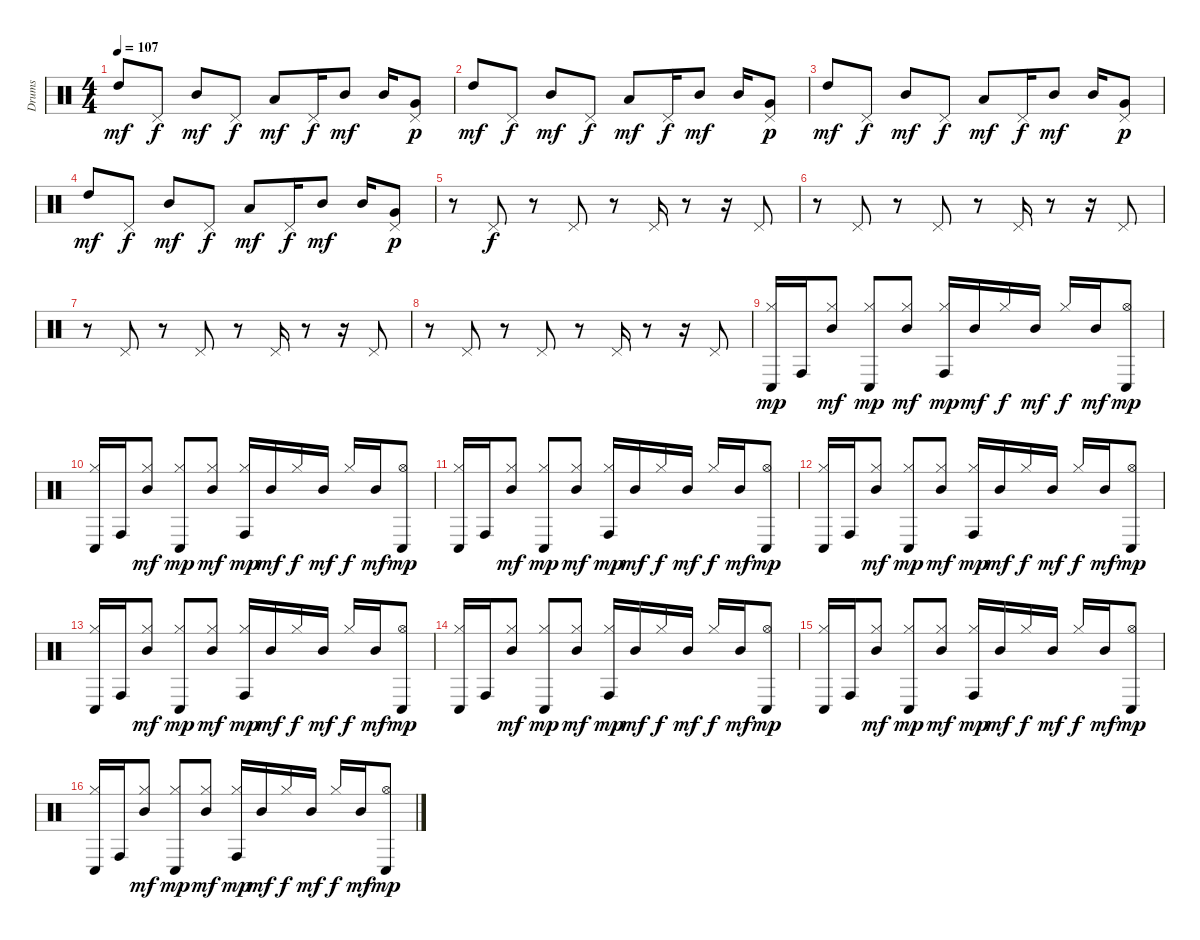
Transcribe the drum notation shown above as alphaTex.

\track ("Drums" "Drums") {instrument percussion}
\staff {score}
\articulation defaults
\ts (4 4)
\tempo 107
\clef neutral
\ks c "High Tom (hit)".8{dy mf} "Pedal Hi-Hat (hit)".8{dy f} "Mid Tom (hit)".8{dy mf} "Pedal Hi-Hat (hit)".8{dy f} "Low Tom (hit)".8{dy mf} "Pedal Hi-Hat (hit)".16{dy f} "Mid Tom (hit)".8{dy mf} "Mid Tom (hit)".16
("Pedal Hi-Hat (hit)" "Very Low Tom (hit)").8{dy p} |
"High Tom (hit)".8{dy mf} "Pedal Hi-Hat (hit)".8{dy f} "Mid Tom (hit)".8{dy mf} "Pedal Hi-Hat (hit)".8{dy f} "Low Tom (hit)".8{dy mf} "Pedal Hi-Hat (hit)".16{dy f} "Mid Tom (hit)".8{dy mf} "Mid Tom (hit)".16 ("Pedal Hi-Hat (hit)" "Very Low Tom (hit)").8{dy p} |
"High Tom (hit)".8{dy mf} "Pedal Hi-Hat (hit)".8{dy f} "Mid Tom (hit)".8{dy mf} "Pedal Hi-Hat (hit)".8{dy f} "Low Tom (hit)".8{dy mf} "Pedal Hi-Hat (hit)".16{dy f} "Mid Tom (hit)".8{dy mf} "Mid Tom (hit)".16 ("Pedal Hi-Hat (hit)" "Very Low Tom (hit)").8{dy p} |
"High Tom (hit)".8{dy mf} "Pedal Hi-Hat (hit)".8{dy f} "Mid Tom (hit)".8{dy mf} "Pedal Hi-Hat (hit)".8{dy f} "Low Tom (hit)".8{dy mf} "Pedal Hi-Hat (hit)".16{dy f} "Mid Tom (hit)".8{dy mf} "Mid Tom (hit)".16 ("Pedal Hi-Hat (hit)" "Very Low Tom (hit)").8{dy p} |
r.8 "Pedal Hi-Hat (hit)".8{dy f} r.8 "Pedal Hi-Hat (hit)".8 r.8 "Pedal Hi-Hat (hit)".16 r.8 r.16 "Pedal Hi-Hat (hit)".8 |
r.8 "Pedal Hi-Hat (hit)".8 r.8 "Pedal Hi-Hat (hit)".8 r.8 "Pedal Hi-Hat (hit)".16 r.8 r.16 "Pedal Hi-Hat (hit)".8 |
r.8 "Pedal Hi-Hat (hit)".8 r.8 "Pedal Hi-Hat (hit)".8 r.8 "Pedal Hi-Hat (hit)".16 r.8 r.16 "Pedal Hi-Hat (hit)".8 |
r.8 "Pedal Hi-Hat (hit)".8 r.8 "Pedal Hi-Hat (hit)".8 r.8 "Pedal Hi-Hat (hit)".16 r.8 r.16 "Pedal Hi-Hat (hit)".8 |
("Hi-Hat (closed)" "Conga low (hit)").16{dy mp} "Conga high (hit)".16 ("Hi-Hat (closed)" "Mid Tom (hit)").8{dy mf} ("Hi-Hat (closed)" "Conga low (hit)").8{dy mp} ("Hi-Hat (closed)" "Mid Tom (hit)").8{dy mf} ("Hi-Hat (closed)" "Conga high (hit)").16{dy mp} "Mid Tom (hit)".16{dy mf} "Hi-Hat (closed)".16{dy f} "Mid Tom (hit)".16{dy mf} "Hi-Hat (closed)".16{dy f} "Mid Tom (hit)".16{dy mf} ("Hi-Hat (open)" "Conga low (hit)").8{dy mp} |
("Hi-Hat (closed)" "Conga low (hit)").16 "Conga high (hit)".16 ("Hi-Hat (closed)" "Mid Tom (hit)").8{dy mf} ("Hi-Hat (closed)" "Conga low (hit)").8{dy mp} ("Hi-Hat (closed)" "Mid Tom (hit)").8{dy mf} ("Hi-Hat (closed)" "Conga high (hit)").16{dy mp} "Mid Tom (hit)".16{dy mf} "Hi-Hat (closed)".16{dy f} "Mid Tom (hit)".16{dy mf} "Hi-Hat (closed)".16{dy f} "Mid Tom (hit)".16{dy mf} ("Hi-Hat (open)" "Conga low (hit)").8{dy mp} |
("Hi-Hat (closed)" "Conga low (hit)").16 "Conga high (hit)".16 ("Hi-Hat (closed)" "Mid Tom (hit)").8{dy mf} ("Hi-Hat (closed)" "Conga low (hit)").8{dy mp} ("Hi-Hat (closed)" "Mid Tom (hit)").8{dy mf} ("Hi-Hat (closed)" "Conga high (hit)").16{dy mp} "Mid Tom (hit)".16{dy mf} "Hi-Hat (closed)".16{dy f} "Mid Tom (hit)".16{dy mf} "Hi-Hat (closed)".16{dy f} "Mid Tom (hit)".16{dy mf} ("Hi-Hat (open)" "Conga low (hit)").8{dy mp} |
("Hi-Hat (closed)" "Conga low (hit)").16 "Conga high (hit)".16 ("Hi-Hat (closed)" "Mid Tom (hit)").8{dy mf} ("Hi-Hat (closed)" "Conga low (hit)").8{dy mp} ("Hi-Hat (closed)" "Mid Tom (hit)").8{dy mf} ("Hi-Hat (closed)" "Conga high (hit)").16{dy mp} "Mid Tom (hit)".16{dy mf} "Hi-Hat (closed)".16{dy f} "Mid Tom (hit)".16{dy mf} "Hi-Hat (closed)".16{dy f} "Mid Tom (hit)".16{dy mf} ("Hi-Hat (open)" "Conga low (hit)").8{dy mp} |
("Hi-Hat (closed)" "Conga low (hit)").16 "Conga high (hit)".16 ("Hi-Hat (closed)" "Mid Tom (hit)").8{dy mf} ("Hi-Hat (closed)" "Conga low (hit)").8{dy mp} ("Hi-Hat (closed)" "Mid Tom (hit)").8{dy mf} ("Hi-Hat (closed)" "Conga high (hit)").16{dy mp} "Mid Tom (hit)".16{dy mf} "Hi-Hat (closed)".16{dy f} "Mid Tom (hit)".16{dy mf} "Hi-Hat (closed)".16{dy f} "Mid Tom (hit)".16{dy mf} ("Hi-Hat (open)" "Conga low (hit)").8{dy mp} |
("Hi-Hat (closed)" "Conga low (hit)").16 "Conga high (hit)".16 ("Hi-Hat (closed)" "Mid Tom (hit)").8{dy mf} ("Hi-Hat (closed)" "Conga low (hit)").8{dy mp} ("Hi-Hat (closed)" "Mid Tom (hit)").8{dy mf} ("Hi-Hat (closed)" "Conga high (hit)").16{dy mp} "Mid Tom (hit)".16{dy mf} "Hi-Hat (closed)".16{dy f} "Mid Tom (hit)".16{dy mf} "Hi-Hat (closed)".16{dy f} "Mid Tom (hit)".16{dy mf} ("Hi-Hat (open)" "Conga low (hit)").8{dy mp} |
("Hi-Hat (closed)" "Conga low (hit)").16 "Conga high (hit)".16 ("Hi-Hat (closed)" "Mid Tom (hit)").8{dy mf} ("Hi-Hat (closed)" "Conga low (hit)").8{dy mp} ("Hi-Hat (closed)" "Mid Tom (hit)").8{dy mf} ("Hi-Hat (closed)" "Conga high (hit)").16{dy mp} "Mid Tom (hit)".16{dy mf} "Hi-Hat (closed)".16{dy f} "Mid Tom (hit)".16{dy mf} "Hi-Hat (closed)".16{dy f} "Mid Tom (hit)".16{dy mf} ("Hi-Hat (open)" "Conga low (hit)").8{dy mp} |
("Hi-Hat (closed)" "Conga low (hit)").16 "Conga high (hit)".16 ("Hi-Hat (closed)" "Mid Tom (hit)").8{dy mf} ("Hi-Hat (closed)" "Conga low (hit)").8{dy mp} ("Hi-Hat (closed)" "Mid Tom (hit)").8{dy mf} ("Hi-Hat (closed)" "Conga high (hit)").16{dy mp} "Mid Tom (hit)".16{dy mf} "Hi-Hat (closed)".16{dy f} "Mid Tom (hit)".16{dy mf} "Hi-Hat (closed)".16{dy f} "Mid Tom (hit)".16{dy mf} ("Hi-Hat (open)" "Conga low (hit)").8{dy mp}
